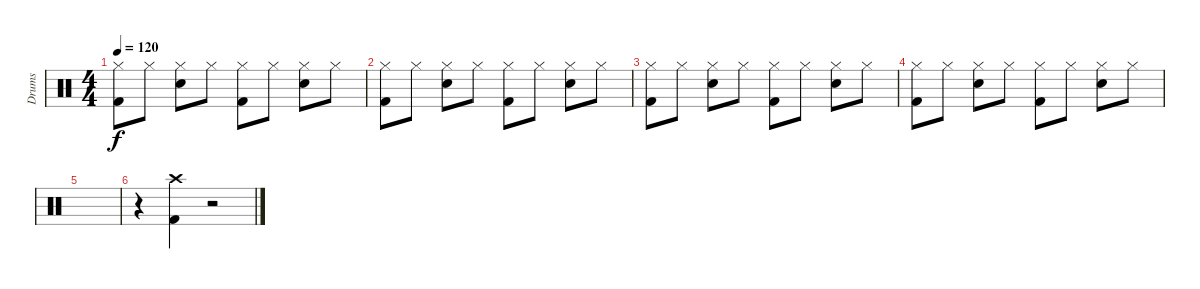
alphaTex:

\track ("Drums" "Drums") {instrument percussion}
\staff {score}
\articulation defaults
\ts (4 4)
\tempo 120
\clef neutral
\ks c
("Hi-Hat (closed)" "Kick (hit) 2").8{dy f} "Hi-Hat (closed)".8 ("Hi-Hat (closed)" "Snare (hit) 2").8 "Hi-Hat (closed)".8 ("Hi-Hat (closed)" "Kick (hit) 2").8 "Hi-Hat (closed)".8 ("Hi-Hat (closed)" "Snare (hit) 2").8 "Hi-Hat (closed)".8 |
("Hi-Hat (closed)" "Kick (hit) 2").8 "Hi-Hat (closed)".8 ("Hi-Hat (closed)" "Snare (hit) 2").8 "Hi-Hat (closed)".8 ("Hi-Hat (closed)" "Kick (hit) 2").8 "Hi-Hat (closed)".8 ("Hi-Hat (closed)" "Snare (hit) 2").8 "Hi-Hat (closed)".8 |
("Hi-Hat (closed)" "Kick (hit) 2").8 "Hi-Hat (closed)".8 ("Hi-Hat (closed)" "Snare (hit) 2").8 "Hi-Hat (closed)".8 ("Hi-Hat (closed)" "Kick (hit) 2").8 "Hi-Hat (closed)".8 ("Hi-Hat (closed)" "Snare (hit) 2").8 "Hi-Hat (closed)".8 |
("Hi-Hat (closed)" "Kick (hit) 2").8 "Hi-Hat (closed)".8 ("Hi-Hat (closed)" "Snare (hit) 2").8 "Hi-Hat (closed)".8 ("Hi-Hat (closed)" "Kick (hit) 2").8 "Hi-Hat (closed)".8 ("Hi-Hat (closed)" "Snare (hit) 2").8 "Hi-Hat (closed)".8 |
|
r.4 ("Crash high (hit)" "Kick (hit) 2").4 r.2
